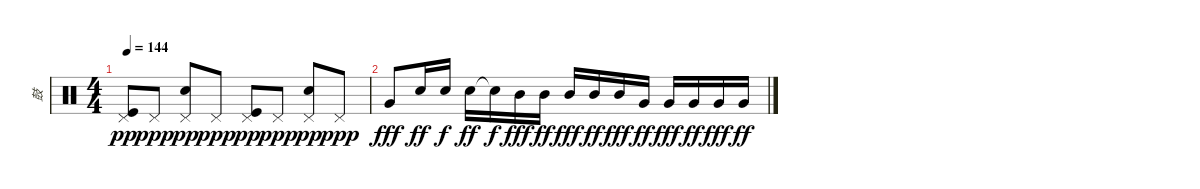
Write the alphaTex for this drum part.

\track ("鼓" "鼓") {instrument percussion}
\staff {score}
\articulation defaults
\ts (4 4)
\tempo 144
\clef neutral
\ks c
("Kick (hit)" "Pedal Hi-Hat (hit)").8{dy pp} "Pedal Hi-Hat (hit)".8{dy ppp} ("Snare (hit) 2" "Pedal Hi-Hat (hit)").8{dy pp} "Pedal Hi-Hat (hit)".8{dy ppp} ("Kick (hit)" "Pedal Hi-Hat (hit)").8{dy pp} "Pedal Hi-Hat (hit)".8{dy ppp} ("Snare (hit) 2" "Pedal Hi-Hat (hit)").8{dy pp} "Pedal Hi-Hat (hit)".8{dy ppp} |
"Very Low Tom (hit)".8{dy fff} "Snare (hit) 2".16{dy ff} "Snare (hit) 2".16{dy f} "Snare (hit) 2".16{dy ff} "Snare (hit)"{t}.16{dy f} "Mid Tom (hit)".16{dy fff} "Mid Tom (hit)".16{dy ff} "Mid Tom (hit)".16{dy fff} "Mid Tom (hit)".16{dy ff} "Mid Tom (hit)".16{dy fff} "Very Low Tom (hit)".16{dy ff} "Very Low Tom (hit)".16{dy fff} "Very Low Tom (hit)".16{dy ff} "Very Low Tom (hit)".16{dy fff} "Very Low Tom (hit)".16{dy ff}
